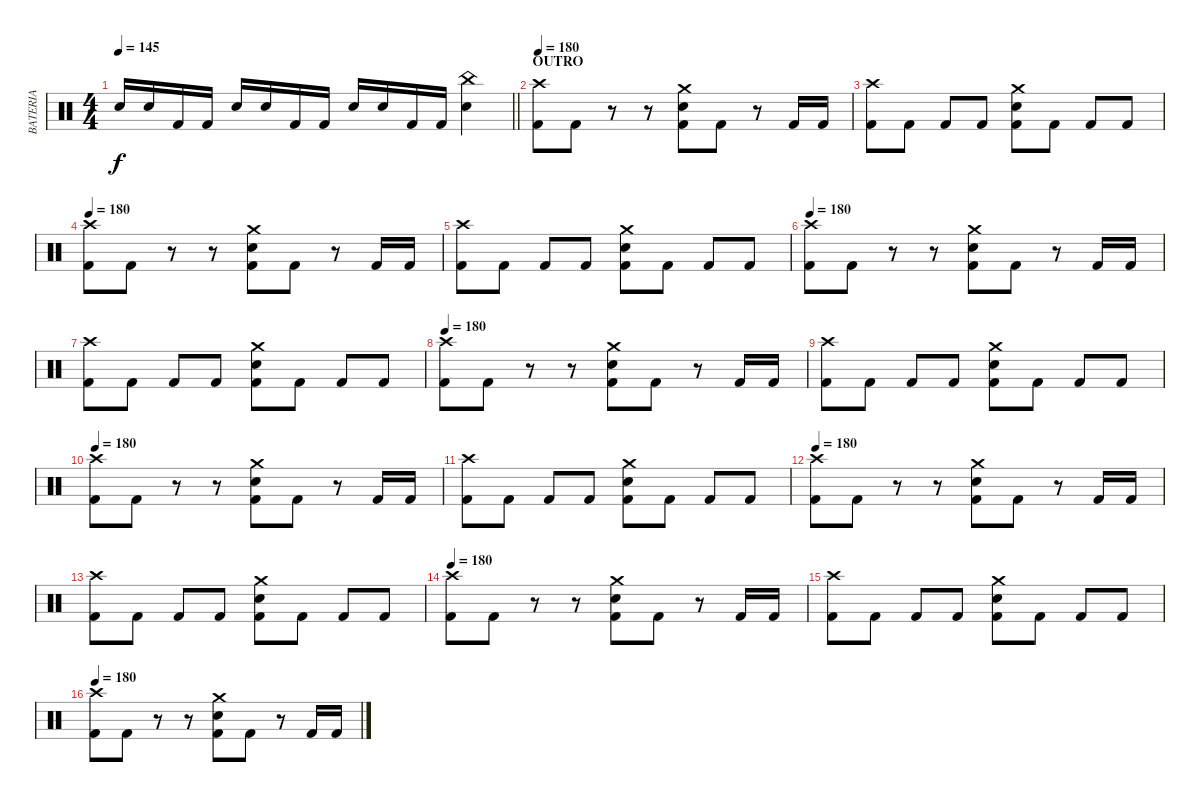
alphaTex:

\track ("BATERIA" "BATERIA") {instrument percussion}
\staff {score}
\articulation defaults
\ts (4 4)
\tempo 145
\clef neutral
\barLineRight lightlight
\ks c "Electric Snare (hit)".16{dy f} "Electric Snare (hit)".16 "Kick (hit) 2".16 "Kick (hit) 2".16 "Electric Snare (hit)".16 "Electric Snare (hit)".16 "Kick (hit) 2".16 "Kick (hit) 2".16 "Electric Snare (hit)".16 "Electric Snare (hit)".16 "Kick (hit) 2".16 "Kick (hit) 2".16
("China (hit)" "Electric Snare (hit)").4 |
\section ("" "OUTRO")
\tempo 180
("Crash high (hit)" "Kick (hit) 2").8 "Kick (hit) 2".8 r.8 r.8 ("Crash medium (hit)" "Electric Snare (hit)" "Kick (hit) 2").8 "Kick (hit) 2".8 r.8 "Kick (hit) 2".16 "Kick (hit) 2".16 |
("Crash high (hit)" "Kick (hit) 2").8 "Kick (hit) 2".8 "Kick (hit) 2".8 "Kick (hit) 2".8 ("Crash medium (hit)" "Electric Snare (hit)" "Kick (hit) 2").8 "Kick (hit) 2".8 "Kick (hit) 2".8 "Kick (hit) 2".8 |
\tempo 180
("Crash high (hit)" "Kick (hit) 2").8 "Kick (hit) 2".8 r.8 r.8 ("Crash medium (hit)" "Electric Snare (hit)" "Kick (hit) 2").8 "Kick (hit) 2".8 r.8 "Kick (hit) 2".16 "Kick (hit) 2".16 |
("Crash high (hit)" "Kick (hit) 2").8 "Kick (hit) 2".8 "Kick (hit) 2".8 "Kick (hit) 2".8 ("Crash medium (hit)" "Electric Snare (hit)" "Kick (hit) 2").8 "Kick (hit) 2".8 "Kick (hit) 2".8 "Kick (hit) 2".8 |
\tempo 180
("Crash high (hit)" "Kick (hit) 2").8 "Kick (hit) 2".8 r.8 r.8 ("Crash medium (hit)" "Electric Snare (hit)" "Kick (hit) 2").8 "Kick (hit) 2".8 r.8 "Kick (hit) 2".16 "Kick (hit) 2".16 |
("Crash high (hit)" "Kick (hit) 2").8 "Kick (hit) 2".8 "Kick (hit) 2".8 "Kick (hit) 2".8 ("Crash medium (hit)" "Electric Snare (hit)" "Kick (hit) 2").8 "Kick (hit) 2".8 "Kick (hit) 2".8 "Kick (hit) 2".8 |
\tempo 180
("Crash high (hit)" "Kick (hit) 2").8 "Kick (hit) 2".8 r.8 r.8 ("Crash medium (hit)" "Electric Snare (hit)" "Kick (hit) 2").8 "Kick (hit) 2".8 r.8 "Kick (hit) 2".16 "Kick (hit) 2".16 |
("Crash high (hit)" "Kick (hit) 2").8 "Kick (hit) 2".8 "Kick (hit) 2".8 "Kick (hit) 2".8 ("Crash medium (hit)" "Electric Snare (hit)" "Kick (hit) 2").8 "Kick (hit) 2".8 "Kick (hit) 2".8 "Kick (hit) 2".8 |
\tempo 180
("Crash high (hit)" "Kick (hit) 2").8 "Kick (hit) 2".8 r.8 r.8 ("Crash medium (hit)" "Electric Snare (hit)" "Kick (hit) 2").8 "Kick (hit) 2".8 r.8 "Kick (hit) 2".16 "Kick (hit) 2".16 |
("Crash high (hit)" "Kick (hit) 2").8 "Kick (hit) 2".8 "Kick (hit) 2".8 "Kick (hit) 2".8 ("Crash medium (hit)" "Electric Snare (hit)" "Kick (hit) 2").8 "Kick (hit) 2".8 "Kick (hit) 2".8 "Kick (hit) 2".8 |
\tempo 180
("Crash high (hit)" "Kick (hit) 2").8 "Kick (hit) 2".8 r.8 r.8 ("Crash medium (hit)" "Electric Snare (hit)" "Kick (hit) 2").8 "Kick (hit) 2".8 r.8 "Kick (hit) 2".16 "Kick (hit) 2".16 |
("Crash high (hit)" "Kick (hit) 2").8 "Kick (hit) 2".8 "Kick (hit) 2".8 "Kick (hit) 2".8 ("Crash medium (hit)" "Electric Snare (hit)" "Kick (hit) 2").8 "Kick (hit) 2".8 "Kick (hit) 2".8 "Kick (hit) 2".8 |
\tempo 180
("Crash high (hit)" "Kick (hit) 2").8 "Kick (hit) 2".8 r.8 r.8 ("Crash medium (hit)" "Electric Snare (hit)" "Kick (hit) 2").8 "Kick (hit) 2".8 r.8 "Kick (hit) 2".16 "Kick (hit) 2".16 |
("Crash high (hit)" "Kick (hit) 2").8 "Kick (hit) 2".8 "Kick (hit) 2".8 "Kick (hit) 2".8 ("Crash medium (hit)" "Electric Snare (hit)" "Kick (hit) 2").8 "Kick (hit) 2".8 "Kick (hit) 2".8 "Kick (hit) 2".8 |
\tempo 180
("Crash high (hit)" "Kick (hit) 2").8 "Kick (hit) 2".8 r.8 r.8 ("Crash medium (hit)" "Electric Snare (hit)" "Kick (hit) 2").8 "Kick (hit) 2".8 r.8 "Kick (hit) 2".16 "Kick (hit) 2".16
